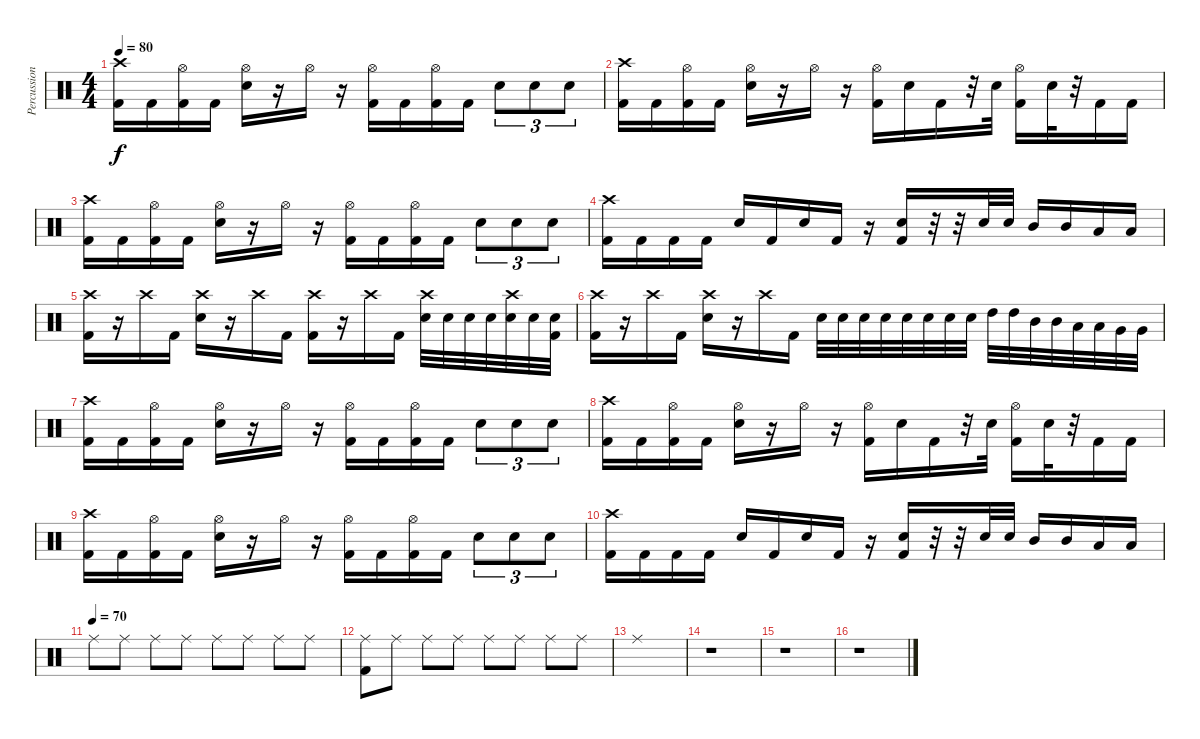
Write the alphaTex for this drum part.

\track ("Percussion" "Percussion") {instrument percussion}
\staff {score}
\articulation defaults
\ts (4 4)
\tempo 80
\clef neutral
\ks c
("Crash high (hit)" "Kick (hit) 2").16{dy f} "Kick (hit) 2".16 ("Hi-Hat (open)" "Kick (hit) 2").16 "Kick (hit) 2".16 ("Hi-Hat (open)" "Electric Snare (hit)").16 r.16 "Hi-Hat (open)".16 r.16 ("Hi-Hat (open)" "Kick (hit) 2").16 "Kick (hit) 2".16 ("Hi-Hat (open)" "Kick (hit) 2").16 "Kick (hit) 2".16 "Electric Snare (hit)".8{tu (3 2)} "Electric Snare (hit)".8{tu (3 2)} "Electric Snare (hit)".8{tu (3 2)} |
("Crash high (hit)" "Kick (hit) 2").16 "Kick (hit) 2".16 ("Hi-Hat (open)" "Kick (hit) 2").16 "Kick (hit) 2".16 ("Hi-Hat (open)" "Electric Snare (hit)").16 r.16 "Hi-Hat (open)".16 r.16 ("Hi-Hat (open)" "Kick (hit) 2").16 "Electric Snare (hit)".16 "Kick (hit) 2".16 r.32 "Electric Snare (hit)".32 ("Hi-Hat (open)" "Kick (hit) 2").16 "Electric Snare (hit)".32 r.32 "Kick (hit) 2".16 "Kick (hit) 2".16 |
("Crash high (hit)" "Kick (hit) 2").16 "Kick (hit) 2".16 ("Hi-Hat (open)" "Kick (hit) 2").16 "Kick (hit) 2".16 ("Hi-Hat (open)" "Electric Snare (hit)").16 r.16 "Hi-Hat (open)".16 r.16 ("Hi-Hat (open)" "Kick (hit) 2").16 "Kick (hit) 2".16 ("Hi-Hat (open)" "Kick (hit) 2").16 "Kick (hit) 2".16 "Electric Snare (hit)".8{tu (3 2)} "Electric Snare (hit)".8{tu (3 2)} "Electric Snare (hit)".8{tu (3 2)} |
("Crash high (hit)" "Kick (hit) 2").16 "Kick (hit) 2".16 "Kick (hit) 2".16 "Kick (hit) 2".16 "Electric Snare (hit)".16 "Kick (hit) 2".16 "Electric Snare (hit)".16 "Kick (hit) 2".16 r.16 ("Electric Snare (hit)" "Kick (hit) 2").16 r.32 r.32 "Electric Snare (hit)".32 "Electric Snare (hit)".32 "Mid Tom (hit)".16 "Mid Tom (hit)".16 "Low Tom (hit)".16 "Low Tom (hit)".16 |
("Crash high (hit)" "Kick (hit) 2").16 r.16 "Crash high (hit)".16 "Kick (hit) 2".16 ("Crash high (hit)" "Electric Snare (hit)").16 r.16 "Crash high (hit)".16 "Kick (hit) 2".16 ("Crash high (hit)" "Kick (hit) 2").16 r.16 "Crash high (hit)".16 "Kick (hit) 2".16 ("Crash high (hit)" "Electric Snare (hit)").32 "Electric Snare (hit)".32 "Electric Snare (hit)".32 "Electric Snare (hit)".32 ("Crash high (hit)" "Electric Snare (hit)").32 "Electric Snare (hit)".32 ("Electric Snare (hit)" "Kick (hit) 2").32 |
("Crash high (hit)" "Kick (hit) 2").16 r.16 "Crash high (hit)".16 "Kick (hit) 2".16 ("Crash high (hit)" "Electric Snare (hit)").16 r.16 "Crash high (hit)".16 "Kick (hit) 2".16 "Electric Snare (hit)".32 "Electric Snare (hit)".32 "Electric Snare (hit)".32 "Electric Snare (hit)".32 "Electric Snare (hit)".32 "Electric Snare (hit)".32 "Electric Snare (hit)".32 "Electric Snare (hit)".32 "High Tom (hit)".32 "High Tom (hit)".32 "Mid Tom (hit)".32 "Mid Tom (hit)".32 "Low Tom (hit)".32 "Low Tom (hit)".32 "Very Low Tom (hit)".32 "Very Low Tom (hit)".32 |
("Crash high (hit)" "Kick (hit) 2").16 "Kick (hit) 2".16 ("Hi-Hat (open)" "Kick (hit) 2").16 "Kick (hit) 2".16 ("Hi-Hat (open)" "Electric Snare (hit)").16 r.16 "Hi-Hat (open)".16 r.16 ("Hi-Hat (open)" "Kick (hit) 2").16 "Kick (hit) 2".16 ("Hi-Hat (open)" "Kick (hit) 2").16 "Kick (hit) 2".16 "Electric Snare (hit)".8{tu (3 2)} "Electric Snare (hit)".8{tu (3 2)} "Electric Snare (hit)".8{tu (3 2)} |
("Crash high (hit)" "Kick (hit) 2").16 "Kick (hit) 2".16 ("Hi-Hat (open)" "Kick (hit) 2").16 "Kick (hit) 2".16 ("Hi-Hat (open)" "Electric Snare (hit)").16 r.16 "Hi-Hat (open)".16 r.16 ("Hi-Hat (open)" "Kick (hit) 2").16 "Electric Snare (hit)".16 "Kick (hit) 2".16 r.32 "Electric Snare (hit)".32 ("Hi-Hat (open)" "Kick (hit) 2").16 "Electric Snare (hit)".32 r.32 "Kick (hit) 2".16 "Kick (hit) 2".16 |
("Crash high (hit)" "Kick (hit) 2").16 "Kick (hit) 2".16 ("Hi-Hat (open)" "Kick (hit) 2").16 "Kick (hit) 2".16 ("Hi-Hat (open)" "Electric Snare (hit)").16 r.16 "Hi-Hat (open)".16 r.16 ("Hi-Hat (open)" "Kick (hit) 2").16 "Kick (hit) 2".16 ("Hi-Hat (open)" "Kick (hit) 2").16 "Kick (hit) 2".16 "Electric Snare (hit)".8{tu (3 2)} "Electric Snare (hit)".8{tu (3 2)} "Electric Snare (hit)".8{tu (3 2)} |
("Crash high (hit)" "Kick (hit) 2").16 "Kick (hit) 2".16 "Kick (hit) 2".16 "Kick (hit) 2".16 "Electric Snare (hit)".16 "Kick (hit) 2".16 "Electric Snare (hit)".16 "Kick (hit) 2".16 r.16 ("Electric Snare (hit)" "Kick (hit) 2").16 r.32 r.32 "Electric Snare (hit)".32 "Electric Snare (hit)".32 "Mid Tom (hit)".16 "Mid Tom (hit)".16 "Low Tom (hit)".16 "Low Tom (hit)".16 |
\tempo (70)
"Ride (middle)".8 "Ride (middle)".8 "Ride (middle)".8 "Ride (middle)".8 "Ride (middle)".8 "Ride (middle)".8 "Ride (middle)".8 "Ride (middle)".8 |
("Ride (middle)" "Kick (hit) 2").8 "Ride (middle)".8 "Ride (middle)".8 "Ride (middle)".8 "Ride (middle)".8 "Ride (middle)".8 "Ride (middle)".8 "Ride (middle)".8 |
"Ride (middle)".1 |
r.1 |
r.1 |
r.1
